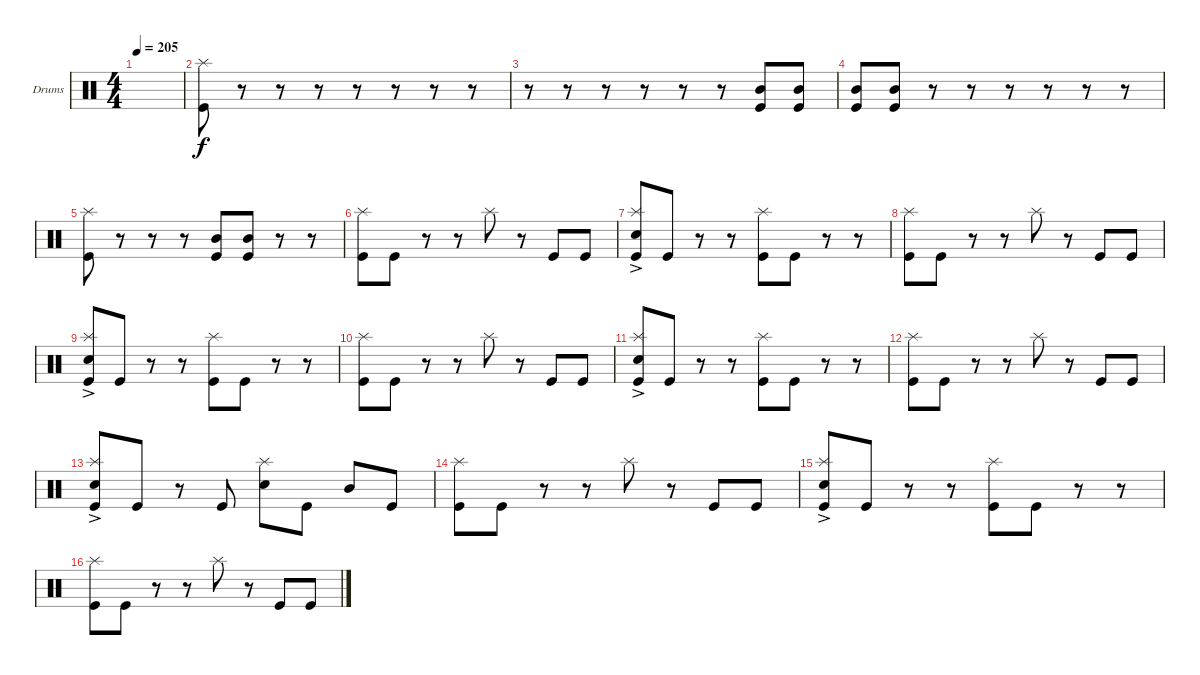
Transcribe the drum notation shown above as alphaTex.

\defaultSystemsLayout 4
\bracketExtendMode groupsimilarinstruments
\firstSystemTrackNameOrientation horizontal
\otherSystemsTrackNameOrientation horizontal
\track ("Drumkit" "Drums") {instrument percussion}
\staff {score}
\articulation defaults
\ts (4 4)
\tempo 205
\clef neutral
\ks c
|
("Kick (hit)" "Splash (hit)").8 r.8 r.8 r.8 r.8 r.8 r.8 r.8 |
r.8 r.8 r.8 r.8 r.8 r.8 ("Kick (hit)" "Mid Tom (hit)").8 ("Kick (hit)" "Mid Tom (hit)").8 |
("Kick (hit)" "Mid Tom (hit)").8 ("Kick (hit)" "Mid Tom (hit)").8 r.8 r.8 r.8 r.8 r.8 r.8 |
("Kick (hit)" "Splash (hit)").8 r.8 r.8 r.8 ("Mid Tom (hit)" "Kick (hit)").8 ("Mid Tom (hit)" "Kick (hit)").8 r.8 r.8 |
("Kick (hit)" "Splash (hit)").8 "Kick (hit)".8 r.8 r.8 "Splash (hit)".8 r.8 "Kick (hit)".8 "Kick (hit)".8 |
("Snare (hit) 2"{ac} "Kick (hit)" "Splash (hit)").8 "Kick (hit)".8 r.8 r.8 ("Kick (hit)" "Splash (hit)").8 "Kick (hit)".8 r.8 r.8 |
("Kick (hit)" "Splash (hit)").8 "Kick (hit)".8 r.8 r.8 "Splash (hit)".8 r.8 "Kick (hit)".8 "Kick (hit)".8 |
("Snare (hit) 2"{ac} "Kick (hit)" "Splash (hit)").8 "Kick (hit)".8 r.8 r.8 ("Kick (hit)" "Splash (hit)").8 "Kick (hit)".8 r.8 r.8 |
("Kick (hit)" "Splash (hit)").8 "Kick (hit)".8 r.8 r.8 "Splash (hit)".8 r.8 "Kick (hit)".8 "Kick (hit)".8 |
("Snare (hit) 2"{ac} "Kick (hit)" "Splash (hit)").8 "Kick (hit)".8 r.8 r.8 ("Kick (hit)" "Splash (hit)").8 "Kick (hit)".8 r.8 r.8 |
("Kick (hit)" "Splash (hit)").8 "Kick (hit)".8 r.8 r.8 "Splash (hit)".8 r.8 "Kick (hit)".8 "Kick (hit)".8 |
("Snare (hit) 2"{ac} "Kick (hit)" "Splash (hit)").8 "Kick (hit)".8 r.8 "Kick (hit)".8 ("Splash (hit)" "Snare (hit) 2").8 "Kick (hit)".8 "Mid Tom (hit)".8 "Kick (hit)".8 |
("Kick (hit)" "Splash (hit)").8 "Kick (hit)".8 r.8 r.8 "Splash (hit)".8 r.8 "Kick (hit)".8 "Kick (hit)".8 |
("Snare (hit) 2"{ac} "Kick (hit)" "Splash (hit)").8 "Kick (hit)".8 r.8 r.8 ("Kick (hit)" "Splash (hit)").8 "Kick (hit)".8 r.8 r.8 |
("Kick (hit)" "Splash (hit)").8 "Kick (hit)".8 r.8 r.8 "Splash (hit)".8 r.8 "Kick (hit)".8 "Kick (hit)".8
